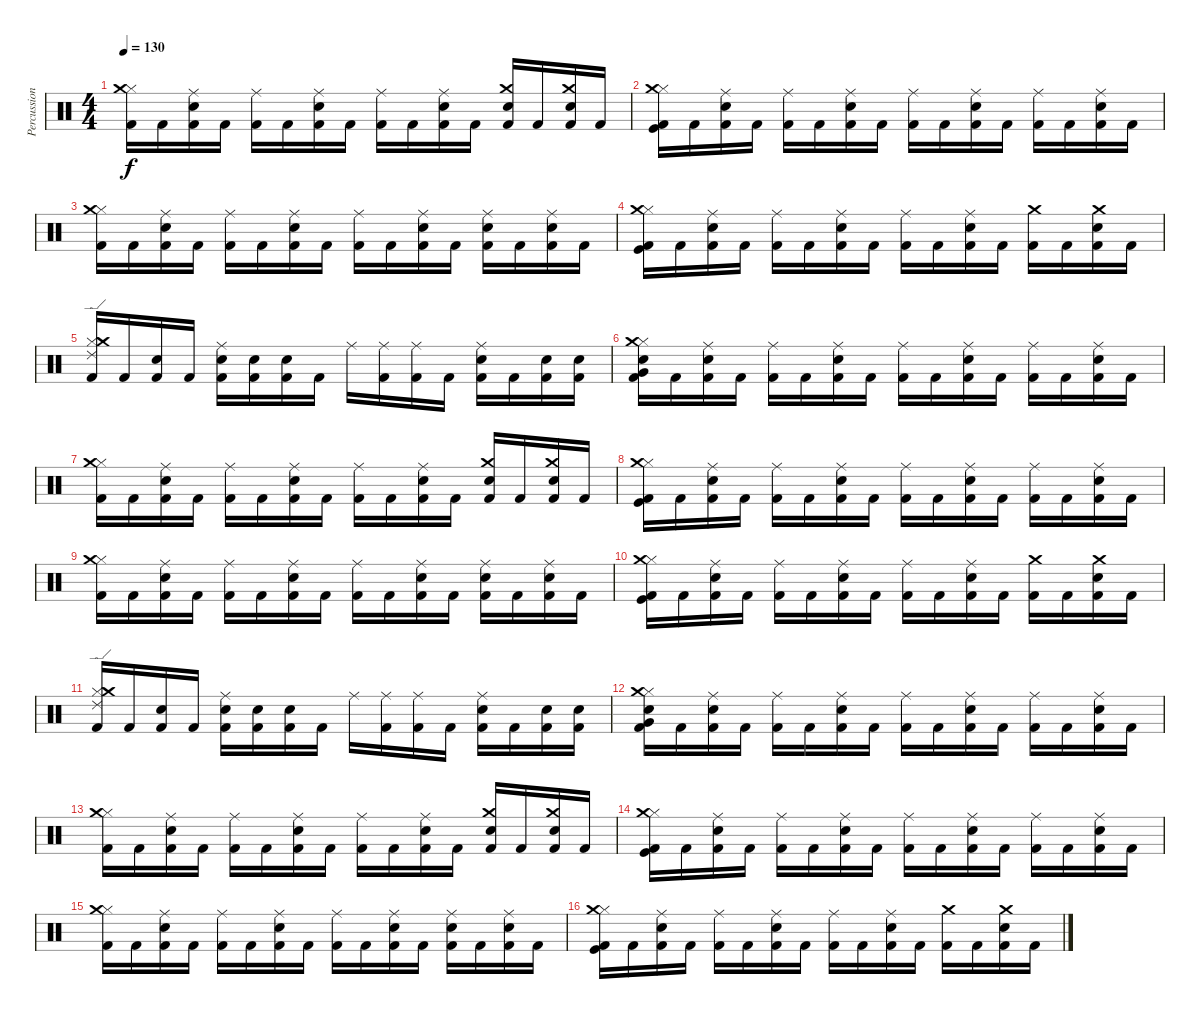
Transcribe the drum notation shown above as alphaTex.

\track ("Percussion" "Percussion") {instrument percussion}
\staff {score}
\articulation defaults
\ts (4 4)
\tempo 130
\clef neutral
\ks c
("Kick (hit) 2" "Hi-Hat (closed)" "Crash medium (hit)").16{dy f} "Kick (hit) 2".16 ("Kick (hit) 2" "Snare (hit) 2" "Ride (middle)").16 "Kick (hit) 2".16 ("Kick (hit) 2" "Ride (middle)").16 "Kick (hit) 2".16 ("Kick (hit) 2" "Snare (hit) 2" "Ride (middle)").16 "Kick (hit) 2".16 ("Kick (hit) 2" "Ride (middle)").16 "Kick (hit) 2".16 ("Kick (hit) 2" "Snare (hit) 2" "Ride (middle)").16 "Kick (hit) 2".16 ("Kick (hit) 2" "Snare (hit) 2" "Crash medium (hit)").16 "Kick (hit) 2".16 ("Kick (hit) 2" "Snare (hit) 2" "Crash medium (hit)").16 "Kick (hit) 2".16 |
("Kick (hit) 2" "Hi-Hat (closed)" "Kick (hit)" "Crash medium (hit)").16 "Kick (hit) 2".16 ("Kick (hit) 2" "Snare (hit) 2" "Ride (middle)").16 "Kick (hit) 2".16 ("Kick (hit) 2" "Ride (middle)").16 "Kick (hit) 2".16 ("Kick (hit) 2" "Snare (hit) 2" "Ride (middle)").16 "Kick (hit) 2".16 ("Kick (hit) 2" "Ride (middle)").16 "Kick (hit) 2".16 ("Kick (hit) 2" "Snare (hit) 2" "Ride (middle)").16 "Kick (hit) 2".16 ("Kick (hit) 2" "Ride (middle)").16 "Kick (hit) 2".16 ("Kick (hit) 2" "Snare (hit) 2" "Ride (middle)").16 "Kick (hit) 2".16 |
("Kick (hit) 2" "Hi-Hat (closed)" "Crash medium (hit)").16 "Kick (hit) 2".16 ("Kick (hit) 2" "Snare (hit) 2" "Ride (middle)").16 "Kick (hit) 2".16 ("Kick (hit) 2" "Ride (middle)").16 "Kick (hit) 2".16 ("Kick (hit) 2" "Snare (hit) 2" "Ride (middle)").16 "Kick (hit) 2".16 ("Kick (hit) 2" "Ride (middle)").16 "Kick (hit) 2".16 ("Kick (hit) 2" "Snare (hit) 2" "Ride (middle)").16 "Kick (hit) 2".16 ("Kick (hit) 2" "Snare (hit) 2" "Ride (middle)").16 "Kick (hit) 2".16 ("Kick (hit) 2" "Snare (hit) 2" "Ride (middle)").16 "Kick (hit) 2".16 |
("Kick (hit) 2" "Hi-Hat (closed)" "Kick (hit)" "Crash medium (hit)").16 "Kick (hit) 2".16 ("Kick (hit) 2" "Snare (hit) 2" "Ride (middle)").16 "Kick (hit) 2".16 ("Kick (hit) 2" "Ride (middle)").16 "Kick (hit) 2".16 ("Kick (hit) 2" "Snare (hit) 2" "Ride (middle)").16 "Kick (hit) 2".16 ("Kick (hit) 2" "Ride (middle)").16 "Kick (hit) 2".16 ("Kick (hit) 2" "Snare (hit) 2" "Ride (middle)").16 "Kick (hit) 2".16 ("Kick (hit) 2" "Crash medium (hit)").16 "Kick (hit) 2".16 ("Kick (hit) 2" "Snare (hit) 2" "Crash medium (hit)").16 "Kick (hit) 2".16 |
("Kick (hit) 2" "Hi-Hat (closed)" "Ride (edge) 2" "Crash medium (hit)").16 "Kick (hit) 2".16 ("Kick (hit) 2" "Snare (hit) 2").16 "Kick (hit) 2".16 ("Kick (hit) 2" "Snare (hit) 2" "Ride (middle)").16 ("Kick (hit) 2" "Snare (hit) 2").16 ("Kick (hit) 2" "Snare (hit) 2").16 "Kick (hit) 2".16 "Ride (middle)".16 ("Kick (hit) 2" "Ride (middle)").16 ("Kick (hit) 2" "Ride (middle)").16 "Kick (hit) 2".16 ("Kick (hit) 2" "Snare (hit) 2" "Ride (middle)").16 "Kick (hit) 2".16 ("Kick (hit) 2" "Snare (hit) 2").16 ("Kick (hit) 2" "Snare (hit) 2").16 |
("Kick (hit) 2" "Snare (hit) 2" "Hi-Hat (closed)" "Crash medium (hit)" "Very Low Tom (hit)").16 "Kick (hit) 2".16 ("Kick (hit) 2" "Snare (hit) 2" "Ride (middle)").16 "Kick (hit) 2".16 ("Kick (hit) 2" "Ride (middle)").16 "Kick (hit) 2".16 ("Kick (hit) 2" "Snare (hit) 2" "Ride (middle)").16 "Kick (hit) 2".16 ("Kick (hit) 2" "Ride (middle)").16 "Kick (hit) 2".16 ("Kick (hit) 2" "Snare (hit) 2" "Ride (middle)").16 "Kick (hit) 2".16 ("Kick (hit) 2" "Ride (middle)").16 "Kick (hit) 2".16 ("Kick (hit) 2" "Snare (hit) 2" "Ride (middle)").16 "Kick (hit) 2".16 |
("Kick (hit) 2" "Hi-Hat (closed)" "Crash medium (hit)").16 "Kick (hit) 2".16 ("Kick (hit) 2" "Snare (hit) 2" "Ride (middle)").16 "Kick (hit) 2".16 ("Kick (hit) 2" "Ride (middle)").16 "Kick (hit) 2".16 ("Kick (hit) 2" "Snare (hit) 2" "Ride (middle)").16 "Kick (hit) 2".16 ("Kick (hit) 2" "Ride (middle)").16 "Kick (hit) 2".16 ("Kick (hit) 2" "Snare (hit) 2" "Ride (middle)").16 "Kick (hit) 2".16 ("Kick (hit) 2" "Snare (hit) 2" "Crash medium (hit)").16 "Kick (hit) 2".16 ("Kick (hit) 2" "Snare (hit) 2" "Crash medium (hit)").16 "Kick (hit) 2".16 |
("Kick (hit) 2" "Hi-Hat (closed)" "Kick (hit)" "Crash medium (hit)").16 "Kick (hit) 2".16 ("Kick (hit) 2" "Snare (hit) 2" "Ride (middle)").16 "Kick (hit) 2".16 ("Kick (hit) 2" "Ride (middle)").16 "Kick (hit) 2".16 ("Kick (hit) 2" "Snare (hit) 2" "Ride (middle)").16 "Kick (hit) 2".16 ("Kick (hit) 2" "Ride (middle)").16 "Kick (hit) 2".16 ("Kick (hit) 2" "Snare (hit) 2" "Ride (middle)").16 "Kick (hit) 2".16 ("Kick (hit) 2" "Ride (middle)").16 "Kick (hit) 2".16 ("Kick (hit) 2" "Snare (hit) 2" "Ride (middle)").16 "Kick (hit) 2".16 |
("Kick (hit) 2" "Hi-Hat (closed)" "Crash medium (hit)").16 "Kick (hit) 2".16 ("Kick (hit) 2" "Snare (hit) 2" "Ride (middle)").16 "Kick (hit) 2".16 ("Kick (hit) 2" "Ride (middle)").16 "Kick (hit) 2".16 ("Kick (hit) 2" "Snare (hit) 2" "Ride (middle)").16 "Kick (hit) 2".16 ("Kick (hit) 2" "Ride (middle)").16 "Kick (hit) 2".16 ("Kick (hit) 2" "Snare (hit) 2" "Ride (middle)").16 "Kick (hit) 2".16 ("Kick (hit) 2" "Snare (hit) 2" "Ride (middle)").16 "Kick (hit) 2".16 ("Kick (hit) 2" "Snare (hit) 2" "Ride (middle)").16 "Kick (hit) 2".16 |
("Kick (hit) 2" "Hi-Hat (closed)" "Kick (hit)" "Crash medium (hit)").16 "Kick (hit) 2".16 ("Kick (hit) 2" "Snare (hit) 2" "Ride (middle)").16 "Kick (hit) 2".16 ("Kick (hit) 2" "Ride (middle)").16 "Kick (hit) 2".16 ("Kick (hit) 2" "Snare (hit) 2" "Ride (middle)").16 "Kick (hit) 2".16 ("Kick (hit) 2" "Ride (middle)").16 "Kick (hit) 2".16 ("Kick (hit) 2" "Snare (hit) 2" "Ride (middle)").16 "Kick (hit) 2".16 ("Kick (hit) 2" "Crash medium (hit)").16 "Kick (hit) 2".16 ("Kick (hit) 2" "Snare (hit) 2" "Crash medium (hit)").16 "Kick (hit) 2".16 |
("Kick (hit) 2" "Hi-Hat (closed)" "Ride (edge) 2" "Crash medium (hit)").16 "Kick (hit) 2".16 ("Kick (hit) 2" "Snare (hit) 2").16 "Kick (hit) 2".16 ("Kick (hit) 2" "Snare (hit) 2" "Ride (middle)").16 ("Kick (hit) 2" "Snare (hit) 2").16 ("Kick (hit) 2" "Snare (hit) 2").16 "Kick (hit) 2".16 "Ride (middle)".16 ("Kick (hit) 2" "Ride (middle)").16 ("Kick (hit) 2" "Ride (middle)").16 "Kick (hit) 2".16 ("Kick (hit) 2" "Snare (hit) 2" "Ride (middle)").16 "Kick (hit) 2".16 ("Kick (hit) 2" "Snare (hit) 2").16 ("Kick (hit) 2" "Snare (hit) 2").16 |
("Kick (hit) 2" "Snare (hit) 2" "Hi-Hat (closed)" "Crash medium (hit)" "Very Low Tom (hit)").16 "Kick (hit) 2".16 ("Kick (hit) 2" "Snare (hit) 2" "Ride (middle)").16 "Kick (hit) 2".16 ("Kick (hit) 2" "Ride (middle)").16 "Kick (hit) 2".16 ("Kick (hit) 2" "Snare (hit) 2" "Ride (middle)").16 "Kick (hit) 2".16 ("Kick (hit) 2" "Ride (middle)").16 "Kick (hit) 2".16 ("Kick (hit) 2" "Snare (hit) 2" "Ride (middle)").16 "Kick (hit) 2".16 ("Kick (hit) 2" "Ride (middle)").16 "Kick (hit) 2".16 ("Kick (hit) 2" "Snare (hit) 2" "Ride (middle)").16 "Kick (hit) 2".16 |
("Kick (hit) 2" "Hi-Hat (closed)" "Crash medium (hit)").16 "Kick (hit) 2".16 ("Kick (hit) 2" "Snare (hit) 2" "Ride (middle)").16 "Kick (hit) 2".16 ("Kick (hit) 2" "Ride (middle)").16 "Kick (hit) 2".16 ("Kick (hit) 2" "Snare (hit) 2" "Ride (middle)").16 "Kick (hit) 2".16 ("Kick (hit) 2" "Ride (middle)").16 "Kick (hit) 2".16 ("Kick (hit) 2" "Snare (hit) 2" "Ride (middle)").16 "Kick (hit) 2".16 ("Kick (hit) 2" "Snare (hit) 2" "Crash medium (hit)").16 "Kick (hit) 2".16 ("Kick (hit) 2" "Snare (hit) 2" "Crash medium (hit)").16 "Kick (hit) 2".16 |
("Kick (hit) 2" "Hi-Hat (closed)" "Kick (hit)" "Crash medium (hit)").16 "Kick (hit) 2".16 ("Kick (hit) 2" "Snare (hit) 2" "Ride (middle)").16 "Kick (hit) 2".16 ("Kick (hit) 2" "Ride (middle)").16 "Kick (hit) 2".16 ("Kick (hit) 2" "Snare (hit) 2" "Ride (middle)").16 "Kick (hit) 2".16 ("Kick (hit) 2" "Ride (middle)").16 "Kick (hit) 2".16 ("Kick (hit) 2" "Snare (hit) 2" "Ride (middle)").16 "Kick (hit) 2".16 ("Kick (hit) 2" "Ride (middle)").16 "Kick (hit) 2".16 ("Kick (hit) 2" "Snare (hit) 2" "Ride (middle)").16 "Kick (hit) 2".16 |
("Kick (hit) 2" "Hi-Hat (closed)" "Crash medium (hit)").16 "Kick (hit) 2".16 ("Kick (hit) 2" "Snare (hit) 2" "Ride (middle)").16 "Kick (hit) 2".16 ("Kick (hit) 2" "Ride (middle)").16 "Kick (hit) 2".16 ("Kick (hit) 2" "Snare (hit) 2" "Ride (middle)").16 "Kick (hit) 2".16 ("Kick (hit) 2" "Ride (middle)").16 "Kick (hit) 2".16 ("Kick (hit) 2" "Snare (hit) 2" "Ride (middle)").16 "Kick (hit) 2".16 ("Kick (hit) 2" "Snare (hit) 2" "Ride (middle)").16 "Kick (hit) 2".16 ("Kick (hit) 2" "Snare (hit) 2" "Ride (middle)").16 "Kick (hit) 2".16 |
("Kick (hit) 2" "Hi-Hat (closed)" "Kick (hit)" "Crash medium (hit)").16 "Kick (hit) 2".16 ("Kick (hit) 2" "Snare (hit) 2" "Ride (middle)").16 "Kick (hit) 2".16 ("Kick (hit) 2" "Ride (middle)").16 "Kick (hit) 2".16 ("Kick (hit) 2" "Snare (hit) 2" "Ride (middle)").16 "Kick (hit) 2".16 ("Kick (hit) 2" "Ride (middle)").16 "Kick (hit) 2".16 ("Kick (hit) 2" "Snare (hit) 2" "Ride (middle)").16 "Kick (hit) 2".16 ("Kick (hit) 2" "Crash medium (hit)").16 "Kick (hit) 2".16 ("Kick (hit) 2" "Snare (hit) 2" "Crash medium (hit)").16 "Kick (hit) 2".16
